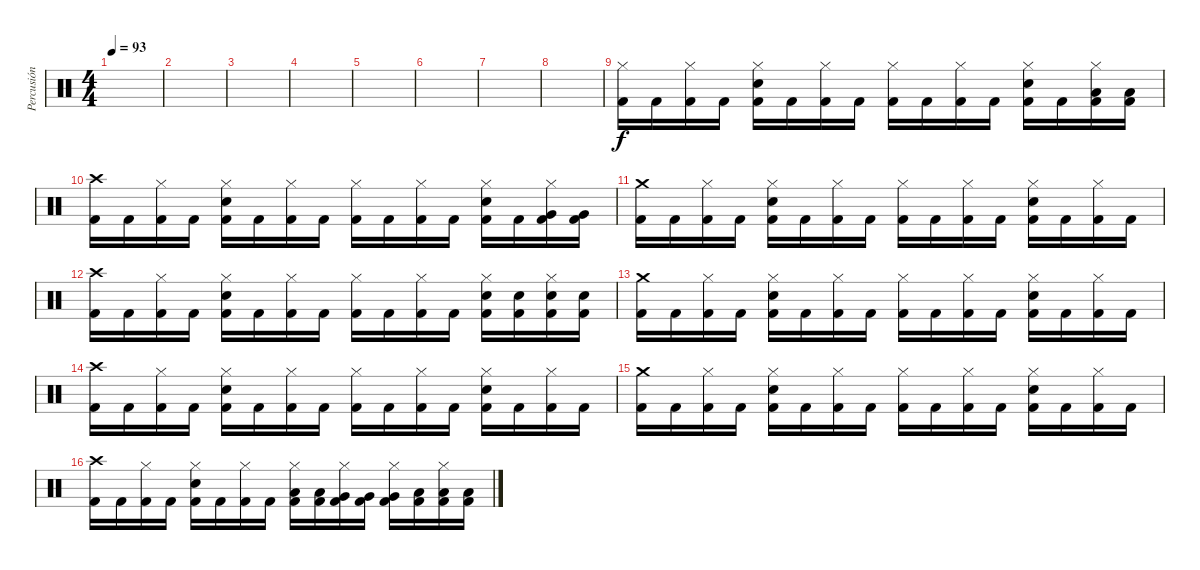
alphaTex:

\track ("Percusión" "Percusión") {instrument percussion}
\staff {score}
\articulation defaults
\ts (4 4)
\tempo 93
\clef neutral
\ks c
|
|
|
|
|
|
|
|
("Hi-Hat (closed)" "Kick (hit) 2").16 "Kick (hit) 2".16 ("Hi-Hat (closed)" "Kick (hit) 2").16 "Kick (hit) 2".16 ("Hi-Hat (closed)" "Snare (hit) 2" "Kick (hit) 2").16 "Kick (hit) 2".16 ("Hi-Hat (closed)" "Kick (hit) 2").16 "Kick (hit) 2".16 ("Hi-Hat (closed)" "Kick (hit) 2").16 "Kick (hit) 2".16 ("Hi-Hat (closed)" "Kick (hit) 2").16 "Kick (hit) 2".16 ("Hi-Hat (closed)" "Snare (hit) 2" "Kick (hit) 2").16 "Kick (hit) 2".16 ("Hi-Hat (closed)" "Low Floor Tom (hit)" "Kick (hit) 2").16 ("Low Floor Tom (hit)" "Kick (hit) 2").16 |
("Crash high (hit)" "Kick (hit) 2").16 "Kick (hit) 2".16 ("Hi-Hat (closed)" "Kick (hit) 2").16 "Kick (hit) 2".16 ("Hi-Hat (closed)" "Snare (hit) 2" "Kick (hit) 2").16 "Kick (hit) 2".16 ("Hi-Hat (closed)" "Kick (hit) 2").16 "Kick (hit) 2".16 ("Hi-Hat (closed)" "Kick (hit) 2").16 "Kick (hit) 2".16 ("Hi-Hat (closed)" "Kick (hit) 2").16 "Kick (hit) 2".16 ("Hi-Hat (closed)" "Snare (hit) 2" "Kick (hit) 2").16 "Kick (hit) 2".16 ("Hi-Hat (closed)" "Very Low Tom (hit)" "Kick (hit) 2").16 ("Very Low Tom (hit)" "Kick (hit) 2").16 |
("Crash medium (hit)" "Kick (hit) 2").16 "Kick (hit) 2".16 ("Hi-Hat (closed)" "Kick (hit) 2").16 "Kick (hit) 2".16 ("Hi-Hat (closed)" "Snare (hit) 2" "Kick (hit) 2").16 "Kick (hit) 2".16 ("Hi-Hat (closed)" "Kick (hit) 2").16 "Kick (hit) 2".16 ("Hi-Hat (closed)" "Kick (hit) 2").16 "Kick (hit) 2".16 ("Hi-Hat (closed)" "Kick (hit) 2").16 "Kick (hit) 2".16 ("Hi-Hat (closed)" "Snare (hit) 2" "Kick (hit) 2").16 "Kick (hit) 2".16 ("Hi-Hat (closed)" "Kick (hit) 2").16 "Kick (hit) 2".16 |
("Crash high (hit)" "Kick (hit) 2").16 "Kick (hit) 2".16 ("Hi-Hat (closed)" "Kick (hit) 2").16 "Kick (hit) 2".16 ("Hi-Hat (closed)" "Snare (hit) 2" "Kick (hit) 2").16 "Kick (hit) 2".16 ("Hi-Hat (closed)" "Kick (hit) 2").16 "Kick (hit) 2".16 ("Hi-Hat (closed)" "Kick (hit) 2").16 "Kick (hit) 2".16 ("Hi-Hat (closed)" "Kick (hit) 2").16 "Kick (hit) 2".16 ("Hi-Hat (closed)" "Snare (hit) 2" "Kick (hit) 2").16 ("Snare (hit) 2" "Kick (hit) 2").16 ("Hi-Hat (closed)" "Snare (hit) 2" "Kick (hit) 2").16 ("Snare (hit) 2" "Kick (hit) 2").16 |
("Crash medium (hit)" "Kick (hit) 2").16 "Kick (hit) 2".16 ("Hi-Hat (closed)" "Kick (hit) 2").16 "Kick (hit) 2".16 ("Hi-Hat (closed)" "Snare (hit) 2" "Kick (hit) 2").16 "Kick (hit) 2".16 ("Hi-Hat (closed)" "Kick (hit) 2").16 "Kick (hit) 2".16 ("Hi-Hat (closed)" "Kick (hit) 2").16 "Kick (hit) 2".16 ("Hi-Hat (closed)" "Kick (hit) 2").16 "Kick (hit) 2".16 ("Hi-Hat (closed)" "Snare (hit) 2" "Kick (hit) 2").16 "Kick (hit) 2".16 ("Hi-Hat (closed)" "Kick (hit) 2").16 "Kick (hit) 2".16 |
("Crash high (hit)" "Kick (hit) 2").16 "Kick (hit) 2".16 ("Hi-Hat (closed)" "Kick (hit) 2").16 "Kick (hit) 2".16 ("Hi-Hat (closed)" "Snare (hit) 2" "Kick (hit) 2").16 "Kick (hit) 2".16 ("Hi-Hat (closed)" "Kick (hit) 2").16 "Kick (hit) 2".16 ("Hi-Hat (closed)" "Kick (hit) 2").16 "Kick (hit) 2".16 ("Hi-Hat (closed)" "Kick (hit) 2").16 "Kick (hit) 2".16 ("Hi-Hat (closed)" "Snare (hit) 2" "Kick (hit) 2").16 "Kick (hit) 2".16 ("Hi-Hat (closed)" "Kick (hit) 2").16 "Kick (hit) 2".16 |
("Crash medium (hit)" "Kick (hit) 2").16 "Kick (hit) 2".16 ("Hi-Hat (closed)" "Kick (hit) 2").16 "Kick (hit) 2".16 ("Hi-Hat (closed)" "Snare (hit) 2" "Kick (hit) 2").16 "Kick (hit) 2".16 ("Hi-Hat (closed)" "Kick (hit) 2").16 "Kick (hit) 2".16 ("Hi-Hat (closed)" "Kick (hit) 2").16 "Kick (hit) 2".16 ("Hi-Hat (closed)" "Kick (hit) 2").16 "Kick (hit) 2".16 ("Hi-Hat (closed)" "Snare (hit) 2" "Kick (hit) 2").16 "Kick (hit) 2".16 ("Hi-Hat (closed)" "Kick (hit) 2").16 "Kick (hit) 2".16 |
("Crash high (hit)" "Kick (hit) 2").16 "Kick (hit) 2".16 ("Hi-Hat (closed)" "Kick (hit) 2").16 "Kick (hit) 2".16 ("Hi-Hat (closed)" "Snare (hit) 2" "Kick (hit) 2").16 "Kick (hit) 2".16 ("Hi-Hat (closed)" "Kick (hit) 2").16 "Kick (hit) 2".16 ("Hi-Hat (closed)" "Low Floor Tom (hit)" "Kick (hit) 2").16 ("Low Floor Tom (hit)" "Kick (hit) 2").16 ("Hi-Hat (closed)" "Very Low Tom (hit)" "Kick (hit) 2").16 ("Very Low Tom (hit)" "Kick (hit) 2").16 ("Hi-Hat (closed)" "Very Low Tom (hit)" "Kick (hit) 2").16 ("Low Tom (hit)" "Kick (hit) 2").16 ("Hi-Hat (closed)" "Low Tom (hit)" "Kick (hit) 2").16 ("Low Tom (hit)" "Kick (hit) 2").16
